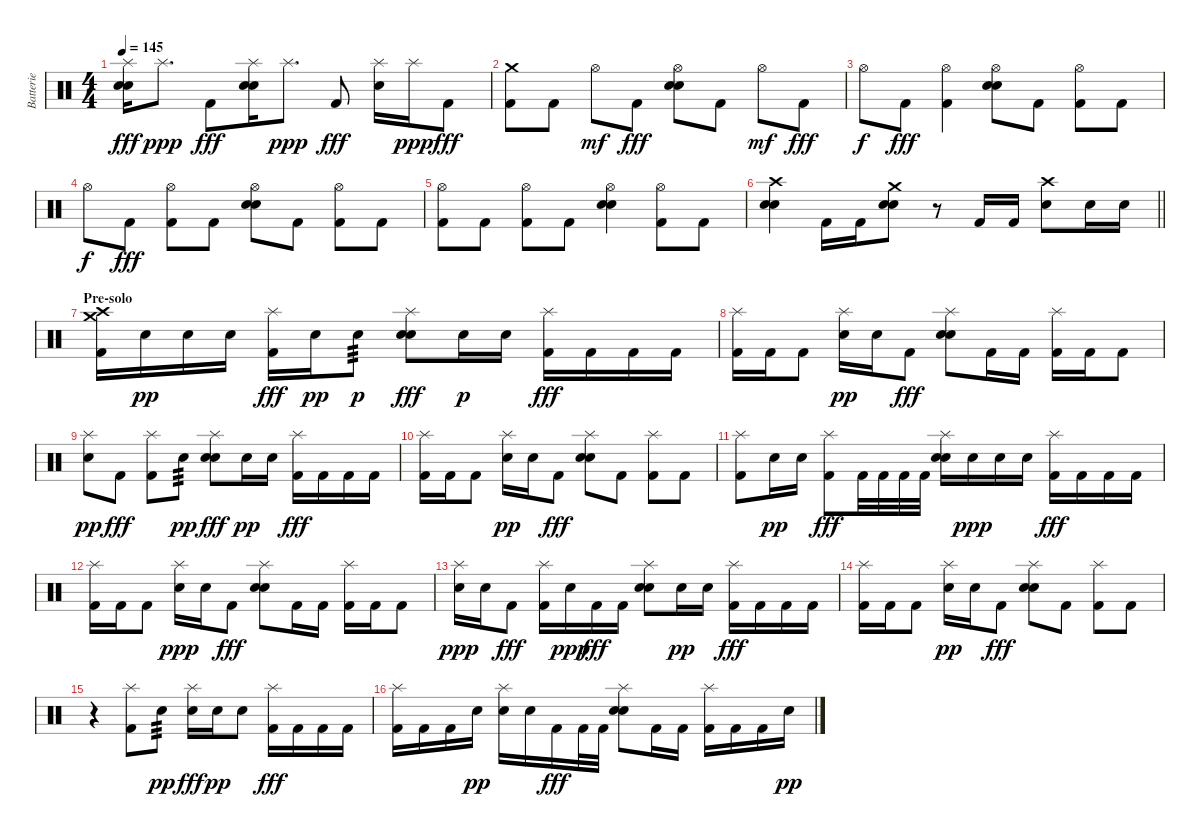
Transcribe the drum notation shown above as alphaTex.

\track ("Batterie" "Batterie") {instrument percussion}
\staff {score}
\articulation defaults
\ts (4 4)
\tempo 145
\clef neutral
\ks c
("Splash (hit)" "Electric Snare (hit)" "Electric Snare (hit)").16{dy fff} "Splash (hit)".8{d dy ppp} "Kick (hit) 2".8{dy fff} ("Splash (hit)" "Electric Snare (hit)" "Electric Snare (hit)").16 "Splash (hit)".8{d dy ppp} "Kick (hit) 2".8{dy fff} ("Splash (hit)" "Electric Snare (hit)").16 "Splash (hit)".16{dy ppp} "Kick (hit) 2".8{dy fff} |
("Crash medium (hit)" "Kick (hit) 2").8 "Kick (hit) 2".8 "Hi-Hat (open)".8{dy mf} "Kick (hit) 2".8{dy fff} ("Hi-Hat (open)" "Electric Snare (hit)" "Electric Snare (hit)").8 "Kick (hit) 2".8 "Hi-Hat (open)".8{dy mf} "Kick (hit) 2".8{dy fff} |
"Hi-Hat (open)".8{dy f} "Kick (hit) 2".8{dy fff} ("Hi-Hat (open)" "Kick (hit) 2").4 ("Hi-Hat (open)" "Electric Snare (hit)" "Electric Snare (hit)").8 "Kick (hit) 2".8 ("Hi-Hat (open)" "Kick (hit) 2").8 "Kick (hit) 2".8 |
"Hi-Hat (open)".8{dy f} "Kick (hit) 2".8{dy fff} ("Hi-Hat (open)" "Kick (hit) 2").8 "Kick (hit) 2".8 ("Hi-Hat (open)" "Electric Snare (hit)" "Electric Snare (hit)").8 "Kick (hit) 2".8 ("Hi-Hat (open)" "Kick (hit) 2").8 "Kick (hit) 2".8 |
("Hi-Hat (open)" "Kick (hit) 2").8 "Kick (hit) 2".8 ("Hi-Hat (open)" "Kick (hit) 2").8 "Kick (hit) 2".8 ("Hi-Hat (open)" "Electric Snare (hit)" "Electric Snare (hit)").4 ("Hi-Hat (open)" "Kick (hit) 2").8 "Kick (hit) 2".8 |
\barLineRight lightlight
("Crash high (hit)" "Electric Snare (hit)" "Electric Snare (hit)").4 "Kick (hit) 2".16 "Kick (hit) 2".16 ("Crash medium (hit)" "Electric Snare (hit)" "Electric Snare (hit)").8 r.8 "Kick (hit) 2".16 "Kick (hit) 2".16 ("Crash high (hit)" "Electric Snare (hit)").8 "Electric Snare (hit)".16 "Electric Snare (hit)".16 |
\section ("" "Pre-solo")
("Crash high (hit)" "Crash medium (hit)" "Kick (hit) 2").16 "Electric Snare (hit)".16{dy pp} "Electric Snare (hit)".16 "Electric Snare (hit)".16 ("Splash (hit)" "Kick (hit) 2").16{dy fff} "Electric Snare (hit)".16{dy pp} "Electric Snare (hit)".8{tp 3 dy p} ("Splash (hit)" "Electric Snare (hit)" "Electric Snare (hit)").8{dy fff} "Electric Snare (hit)".16{dy p} "Electric Snare (hit)".16 ("Splash (hit)" "Kick (hit) 2").16{dy fff} "Kick (hit) 2".16 "Kick (hit) 2".16 "Kick (hit) 2".16 |
("Splash (hit)" "Kick (hit) 2").16 "Kick (hit) 2".16 "Kick (hit) 2".8 ("Splash (hit)" "Electric Snare (hit)").16{dy pp} "Electric Snare (hit)".16 "Kick (hit) 2".8{dy fff} ("Splash (hit)" "Electric Snare (hit)" "Electric Snare (hit)").8 "Kick (hit) 2".16 "Kick (hit) 2".16 ("Splash (hit)" "Kick (hit) 2").16 "Kick (hit) 2".16 "Kick (hit) 2".8 |
("Splash (hit)" "Electric Snare (hit)").8{dy pp} "Kick (hit) 2".8{dy fff} ("Splash (hit)" "Kick (hit) 2").8 "Electric Snare (hit)".8{tp 3 dy pp} ("Splash (hit)" "Electric Snare (hit)" "Electric Snare (hit)").8{dy fff} "Electric Snare (hit)".16{dy pp} "Electric Snare (hit)".16 ("Splash (hit)" "Kick (hit) 2").16{dy fff} "Kick (hit) 2".16 "Kick (hit) 2".16 "Kick (hit) 2".16 |
("Splash (hit)" "Kick (hit) 2").16 "Kick (hit) 2".16 "Kick (hit) 2".8 ("Splash (hit)" "Electric Snare (hit)").16{dy pp} "Electric Snare (hit)".16 "Kick (hit) 2".8{dy fff} ("Splash (hit)" "Electric Snare (hit)" "Electric Snare (hit)").8 "Kick (hit) 2".8 ("Splash (hit)" "Kick (hit) 2").8 "Kick (hit) 2".8 |
("Splash (hit)" "Kick (hit) 2").8 "Electric Snare (hit)".16{dy pp} "Electric Snare (hit)".16 ("Splash (hit)" "Kick (hit) 2").8{dy fff} "Kick (hit) 2".32 "Kick (hit) 2".32 "Kick (hit) 2".32 "Kick (hit) 2".32 ("Splash (hit)" "Electric Snare (hit)" "Electric Snare (hit)").16 "Electric Snare (hit)".16{dy ppp} "Electric Snare (hit)".16 "Electric Snare (hit)".16 ("Splash (hit)" "Kick (hit) 2").16{dy fff} "Kick (hit) 2".16 "Kick (hit) 2".16 "Kick (hit) 2".16 |
("Splash (hit)" "Kick (hit) 2").16 "Kick (hit) 2".16 "Kick (hit) 2".8 ("Splash (hit)" "Electric Snare (hit)").16{dy ppp} "Electric Snare (hit)".16 "Kick (hit) 2".8{dy fff} ("Splash (hit)" "Electric Snare (hit)" "Electric Snare (hit)").8 "Kick (hit) 2".16 "Kick (hit) 2".16 ("Splash (hit)" "Kick (hit) 2").16 "Kick (hit) 2".16 "Kick (hit) 2".8 |
("Splash (hit)" "Electric Snare (hit)").16{dy ppp} "Electric Snare (hit)".16 "Kick (hit) 2".8{dy fff} ("Splash (hit)" "Kick (hit) 2").16 "Electric Snare (hit)".16{dy ppp} "Kick (hit) 2".16{dy fff} "Kick (hit) 2".16 ("Splash (hit)" "Electric Snare (hit)" "Electric Snare (hit)").8 "Electric Snare (hit)".16{dy pp} "Electric Snare (hit)".16 ("Splash (hit)" "Kick (hit) 2").16{dy fff} "Kick (hit) 2".16 "Kick (hit) 2".16 "Kick (hit) 2".16 |
("Splash (hit)" "Kick (hit) 2").16 "Kick (hit) 2".16 "Kick (hit) 2".8 ("Splash (hit)" "Electric Snare (hit)").16{dy pp} "Electric Snare (hit)".16 "Kick (hit) 2".8{dy fff} ("Splash (hit)" "Electric Snare (hit)" "Electric Snare (hit)").8 "Kick (hit) 2".8 ("Splash (hit)" "Kick (hit) 2").8 "Kick (hit) 2".8 |
r.4 ("Splash (hit)" "Kick (hit) 2").8 "Electric Snare (hit)".8{tp 3 dy pp} ("Splash (hit)" "Electric Snare (hit)").16{dy fff} "Electric Snare (hit)".16{dy pp} "Electric Snare (hit)".8 ("Splash (hit)" "Kick (hit) 2").16{dy fff} "Kick (hit) 2".16 "Kick (hit) 2".16 "Kick (hit) 2".16 |
("Splash (hit)" "Kick (hit) 2").16 "Kick (hit) 2".16 "Kick (hit) 2".16 "Electric Snare (hit)".16{dy pp} ("Splash (hit)" "Electric Snare (hit)").16 "Electric Snare (hit)".16 "Kick (hit) 2".16{dy fff} "Kick (hit) 2".32 "Kick (hit) 2".32 ("Splash (hit)" "Electric Snare (hit)" "Electric Snare (hit)").8 "Kick (hit) 2".16 "Kick (hit) 2".16 ("Splash (hit)" "Kick (hit) 2").16 "Kick (hit) 2".16 "Kick (hit) 2".16 "Electric Snare (hit)".16{dy pp}
